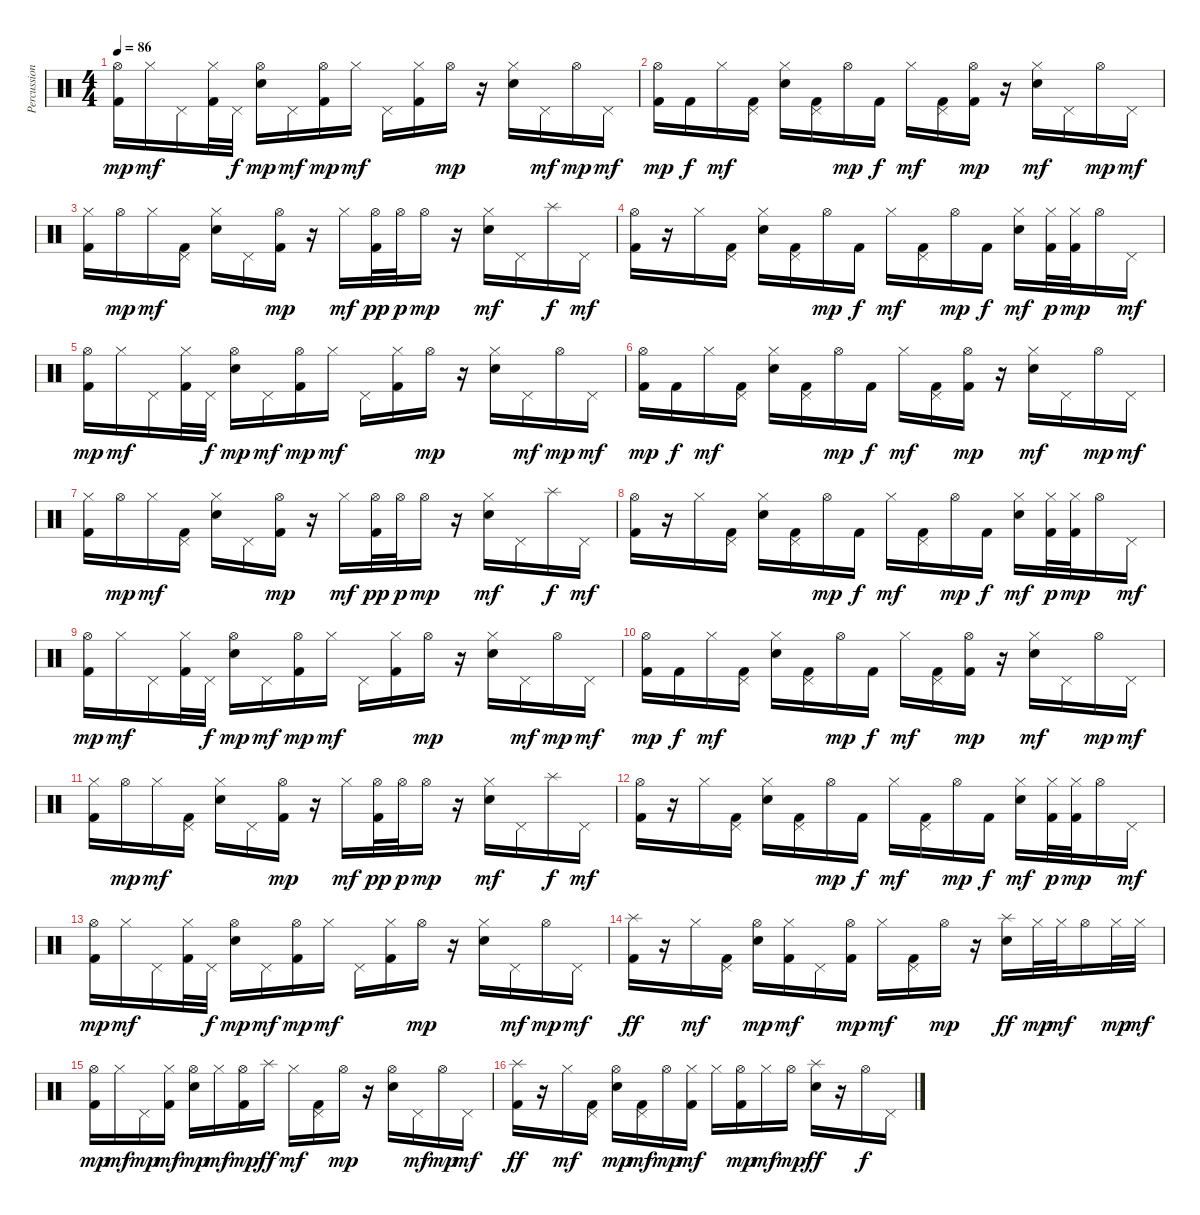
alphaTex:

\track ("Percussion" "Percussion") {instrument percussion}
\staff {score}
\articulation defaults
\ts (4 4)
\tempo 86
\clef neutral
\ks c
("Hi-Hat (open)" "Kick (hit) 2").16{dy mp} "Hi-Hat (closed)".16{dy mf} "Pedal Hi-Hat (hit)".16 ("Hi-Hat (closed)" "Kick (hit) 2").32 "Pedal Hi-Hat (hit)".32{dy f} ("Hi-Hat (open)" "Electric Snare (hit)").16{dy mp} "Pedal Hi-Hat (hit)".16{dy mf} ("Hi-Hat (open)" "Kick (hit) 2").16{dy mp} "Hi-Hat (closed)".16{dy mf} "Pedal Hi-Hat (hit)".16 ("Hi-Hat (closed)" "Kick (hit) 2").16 "Hi-Hat (open)".16{dy mp} r.16 ("Hi-Hat (closed)" "Electric Snare (hit)").16 "Pedal Hi-Hat (hit)".16{dy mf} "Hi-Hat (open)".16{dy mp} "Pedal Hi-Hat (hit)".16{dy mf} |
("Hi-Hat (open)" "Kick (hit) 2").16{dy mp volume 14} "Kick (hit) 2".16{dy f} "Hi-Hat (closed)".16{dy mf} ("Pedal Hi-Hat (hit)" "Kick (hit) 2").16 ("Hi-Hat (closed)" "Electric Snare (hit)").16 ("Pedal Hi-Hat (hit)" "Kick (hit) 2").16 "Hi-Hat (open)".16{dy mp} "Kick (hit) 2".16{dy f} "Hi-Hat (closed)".16{dy mf} ("Pedal Hi-Hat (hit)" "Kick (hit) 2").16 ("Hi-Hat (open)" "Kick (hit) 2").16{dy mp} r.16 ("Hi-Hat (closed)" "Electric Snare (hit)").16{dy mf} "Pedal Hi-Hat (hit)".16 "Hi-Hat (open)".16{dy mp} "Pedal Hi-Hat (hit)".16{dy mf} |
("Hi-Hat (closed)" "Kick (hit) 2").16 "Hi-Hat (open)".16{dy mp} "Hi-Hat (closed)".16{dy mf} ("Pedal Hi-Hat (hit)" "Kick (hit) 2").16 ("Hi-Hat (closed)" "Electric Snare (hit)").16 "Pedal Hi-Hat (hit)".16 ("Hi-Hat (open)" "Kick (hit) 2").16{dy mp} r.16 "Hi-Hat (closed)".16{dy mf} ("Hi-Hat (open)" "Kick (hit) 2").32{dy pp} "Hi-Hat (open)".32{dy p} "Hi-Hat (open)".16{dy mp} r.16 ("Hi-Hat (closed)" "Electric Snare (hit)").16{dy mf} "Pedal Hi-Hat (hit)".16 "Splash (hit)".16{dy f} "Pedal Hi-Hat (hit)".16{dy mf} |
("Hi-Hat (open)" "Kick (hit) 2").16 r.16 "Hi-Hat (closed)".16 ("Pedal Hi-Hat (hit)" "Kick (hit) 2").16 ("Hi-Hat (closed)" "Electric Snare (hit)").16 ("Pedal Hi-Hat (hit)" "Kick (hit) 2").16 "Hi-Hat (open)".16{dy mp} "Kick (hit) 2".16{dy f} "Hi-Hat (closed)".16{dy mf} ("Pedal Hi-Hat (hit)" "Kick (hit) 2").16 "Hi-Hat (open)".16{dy mp} "Kick (hit) 2".16{dy f} ("Hi-Hat (closed)" "Electric Snare (hit)").16{dy mf} ("Hi-Hat (closed)" "Kick (hit) 2").32{dy p} ("Hi-Hat (closed)" "Kick (hit) 2").32{dy mp} "Hi-Hat (open)".16 "Pedal Hi-Hat (hit)".16{dy mf} |
("Hi-Hat (open)" "Kick (hit) 2").16{dy mp} "Hi-Hat (closed)".16{dy mf} "Pedal Hi-Hat (hit)".16 ("Hi-Hat (closed)" "Kick (hit) 2").32 "Pedal Hi-Hat (hit)".32{dy f} ("Hi-Hat (open)" "Electric Snare (hit)").16{dy mp} "Pedal Hi-Hat (hit)".16{dy mf} ("Hi-Hat (open)" "Kick (hit) 2").16{dy mp} "Hi-Hat (closed)".16{dy mf} "Pedal Hi-Hat (hit)".16 ("Hi-Hat (closed)" "Kick (hit) 2").16 "Hi-Hat (open)".16{dy mp} r.16 ("Hi-Hat (closed)" "Electric Snare (hit)").16 "Pedal Hi-Hat (hit)".16{dy mf} "Hi-Hat (open)".16{dy mp} "Pedal Hi-Hat (hit)".16{dy mf} |
("Hi-Hat (open)" "Kick (hit) 2").16{dy mp volume 14} "Kick (hit) 2".16{dy f} "Hi-Hat (closed)".16{dy mf} ("Pedal Hi-Hat (hit)" "Kick (hit) 2").16 ("Hi-Hat (closed)" "Electric Snare (hit)").16 ("Pedal Hi-Hat (hit)" "Kick (hit) 2").16 "Hi-Hat (open)".16{dy mp} "Kick (hit) 2".16{dy f} "Hi-Hat (closed)".16{dy mf} ("Pedal Hi-Hat (hit)" "Kick (hit) 2").16 ("Hi-Hat (open)" "Kick (hit) 2").16{dy mp} r.16 ("Hi-Hat (closed)" "Electric Snare (hit)").16{dy mf} "Pedal Hi-Hat (hit)".16 "Hi-Hat (open)".16{dy mp} "Pedal Hi-Hat (hit)".16{dy mf} |
("Hi-Hat (closed)" "Kick (hit) 2").16 "Hi-Hat (open)".16{dy mp} "Hi-Hat (closed)".16{dy mf} ("Pedal Hi-Hat (hit)" "Kick (hit) 2").16 ("Hi-Hat (closed)" "Electric Snare (hit)").16 "Pedal Hi-Hat (hit)".16 ("Hi-Hat (open)" "Kick (hit) 2").16{dy mp} r.16 "Hi-Hat (closed)".16{dy mf} ("Hi-Hat (open)" "Kick (hit) 2").32{dy pp} "Hi-Hat (open)".32{dy p} "Hi-Hat (open)".16{dy mp} r.16 ("Hi-Hat (closed)" "Electric Snare (hit)").16{dy mf} "Pedal Hi-Hat (hit)".16 "Splash (hit)".16{dy f} "Pedal Hi-Hat (hit)".16{dy mf} |
("Hi-Hat (open)" "Kick (hit) 2").16 r.16 "Hi-Hat (closed)".16 ("Pedal Hi-Hat (hit)" "Kick (hit) 2").16 ("Hi-Hat (closed)" "Electric Snare (hit)").16 ("Pedal Hi-Hat (hit)" "Kick (hit) 2").16 "Hi-Hat (open)".16{dy mp} "Kick (hit) 2".16{dy f} "Hi-Hat (closed)".16{dy mf} ("Pedal Hi-Hat (hit)" "Kick (hit) 2").16 "Hi-Hat (open)".16{dy mp} "Kick (hit) 2".16{dy f} ("Hi-Hat (closed)" "Electric Snare (hit)").16{dy mf} ("Hi-Hat (closed)" "Kick (hit) 2").32{dy p} ("Hi-Hat (closed)" "Kick (hit) 2").32{dy mp} "Hi-Hat (open)".16 "Pedal Hi-Hat (hit)".16{dy mf} |
("Hi-Hat (open)" "Kick (hit) 2").16{dy mp} "Hi-Hat (closed)".16{dy mf} "Pedal Hi-Hat (hit)".16 ("Hi-Hat (closed)" "Kick (hit) 2").32 "Pedal Hi-Hat (hit)".32{dy f} ("Hi-Hat (open)" "Electric Snare (hit)").16{dy mp} "Pedal Hi-Hat (hit)".16{dy mf} ("Hi-Hat (open)" "Kick (hit) 2").16{dy mp} "Hi-Hat (closed)".16{dy mf} "Pedal Hi-Hat (hit)".16 ("Hi-Hat (closed)" "Kick (hit) 2").16 "Hi-Hat (open)".16{dy mp} r.16 ("Hi-Hat (closed)" "Electric Snare (hit)").16 "Pedal Hi-Hat (hit)".16{dy mf} "Hi-Hat (open)".16{dy mp} "Pedal Hi-Hat (hit)".16{dy mf} |
("Hi-Hat (open)" "Kick (hit) 2").16{dy mp volume 14} "Kick (hit) 2".16{dy f} "Hi-Hat (closed)".16{dy mf} ("Pedal Hi-Hat (hit)" "Kick (hit) 2").16 ("Hi-Hat (closed)" "Electric Snare (hit)").16 ("Pedal Hi-Hat (hit)" "Kick (hit) 2").16 "Hi-Hat (open)".16{dy mp} "Kick (hit) 2".16{dy f} "Hi-Hat (closed)".16{dy mf} ("Pedal Hi-Hat (hit)" "Kick (hit) 2").16 ("Hi-Hat (open)" "Kick (hit) 2").16{dy mp} r.16 ("Hi-Hat (closed)" "Electric Snare (hit)").16{dy mf} "Pedal Hi-Hat (hit)".16 "Hi-Hat (open)".16{dy mp} "Pedal Hi-Hat (hit)".16{dy mf} |
("Hi-Hat (closed)" "Kick (hit) 2").16 "Hi-Hat (open)".16{dy mp} "Hi-Hat (closed)".16{dy mf} ("Pedal Hi-Hat (hit)" "Kick (hit) 2").16 ("Hi-Hat (closed)" "Electric Snare (hit)").16 "Pedal Hi-Hat (hit)".16 ("Hi-Hat (open)" "Kick (hit) 2").16{dy mp} r.16 "Hi-Hat (closed)".16{dy mf} ("Hi-Hat (open)" "Kick (hit) 2").32{dy pp} "Hi-Hat (open)".32{dy p} "Hi-Hat (open)".16{dy mp} r.16 ("Hi-Hat (closed)" "Electric Snare (hit)").16{dy mf} "Pedal Hi-Hat (hit)".16 "Splash (hit)".16{dy f} "Pedal Hi-Hat (hit)".16{dy mf} |
("Hi-Hat (open)" "Kick (hit) 2").16 r.16 "Hi-Hat (closed)".16 ("Pedal Hi-Hat (hit)" "Kick (hit) 2").16 ("Hi-Hat (closed)" "Electric Snare (hit)").16 ("Pedal Hi-Hat (hit)" "Kick (hit) 2").16 "Hi-Hat (open)".16{dy mp} "Kick (hit) 2".16{dy f} "Hi-Hat (closed)".16{dy mf} ("Pedal Hi-Hat (hit)" "Kick (hit) 2").16 "Hi-Hat (open)".16{dy mp} "Kick (hit) 2".16{dy f} ("Hi-Hat (closed)" "Electric Snare (hit)").16{dy mf} ("Hi-Hat (closed)" "Kick (hit) 2").32{dy p} ("Hi-Hat (closed)" "Kick (hit) 2").32{dy mp} "Hi-Hat (open)".16 "Pedal Hi-Hat (hit)".16{dy mf} |
("Hi-Hat (open)" "Kick (hit) 2").16{dy mp} "Hi-Hat (closed)".16{dy mf} "Pedal Hi-Hat (hit)".16 ("Hi-Hat (closed)" "Kick (hit) 2").32 "Pedal Hi-Hat (hit)".32{dy f} ("Hi-Hat (open)" "Electric Snare (hit)").16{dy mp} "Pedal Hi-Hat (hit)".16{dy mf} ("Hi-Hat (open)" "Kick (hit) 2").16{dy mp} "Hi-Hat (closed)".16{dy mf} "Pedal Hi-Hat (hit)".16 ("Hi-Hat (closed)" "Kick (hit) 2").16 "Hi-Hat (open)".16{dy mp} r.16 ("Hi-Hat (closed)" "Electric Snare (hit)").16 "Pedal Hi-Hat (hit)".16{dy mf} "Hi-Hat (open)".16{dy mp} "Pedal Hi-Hat (hit)".16{dy mf} |
("Splash (hit)" "Kick (hit) 2").16{dy ff volume 14} r.16 "Hi-Hat (closed)".16{dy mf} ("Pedal Hi-Hat (hit)" "Kick (hit) 2").16 ("Hi-Hat (open)" "Electric Snare (hit)").16{dy mp} ("Hi-Hat (closed)" "Kick (hit) 2").16{dy mf} "Pedal Hi-Hat (hit)".16 ("Hi-Hat (open)" "Kick (hit) 2").16{dy mp} "Hi-Hat (closed)".16{dy mf} ("Pedal Hi-Hat (hit)" "Kick (hit) 2").16 "Hi-Hat (open)".16{dy mp} r.16 ("Splash (hit)" "Electric Snare (hit)").16{dy ff} "Hi-Hat (closed)".32{dy mp} "Hi-Hat (closed)".32{dy mf} "Hi-Hat (open)".16 "Hi-Hat (closed)".32{dy mp} "Hi-Hat (closed)".32{dy mf} |
("Hi-Hat (open)" "Kick (hit) 2").16{dy mp} "Hi-Hat (closed)".16{dy mf} "Pedal Hi-Hat (hit)".16{dy mp} ("Hi-Hat (closed)" "Kick (hit) 2").16{dy mf} ("Hi-Hat (open)" "Electric Snare (hit)").16{dy mp} "Hi-Hat (closed)".16{dy mf} ("Hi-Hat (open)" "Kick (hit) 2").16{dy mp} "Splash (hit)".16{dy ff} "Hi-Hat (closed)".16{dy mf} ("Pedal Hi-Hat (hit)" "Kick (hit) 2").16 "Hi-Hat (open)".16{dy mp} r.16 ("Hi-Hat (open)" "Electric Snare (hit)").16 "Pedal Hi-Hat (hit)".16{dy mf} "Hi-Hat (open)".16{dy mp} "Pedal Hi-Hat (hit)".16{dy mf} |
("Splash (hit)" "Kick (hit) 2").16{dy ff} r.16 "Hi-Hat (closed)".16{dy mf} ("Pedal Hi-Hat (hit)" "Kick (hit) 2").16 ("Hi-Hat (open)" "Electric Snare (hit)").16{dy mp} ("Pedal Hi-Hat (hit)" "Kick (hit) 2").16{dy mf} "Hi-Hat (open)".16{dy mp} ("Hi-Hat (closed)" "Kick (hit) 2").16{dy mf} "Hi-Hat (closed)".16 ("Hi-Hat (open)" "Kick (hit) 2").16{dy mp} "Hi-Hat (closed)".16{dy mf} "Hi-Hat (open)".16{dy mp} ("Splash (hit)" "Electric Snare (hit)").16{dy ff} r.16 "Hi-Hat (open)".16{dy f} "Pedal Hi-Hat (hit)".16
